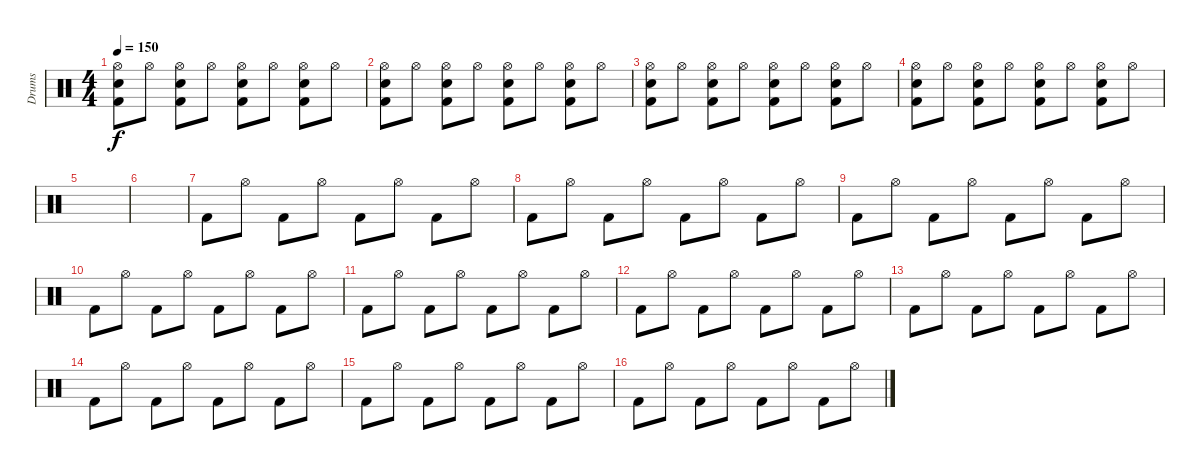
\track ("Drums" "Drums") {instrument percussion}
\staff {score}
\articulation defaults
\ts (4 4)
\tempo 150
\clef neutral
\ks c
("Hi-Hat (open)" "Snare (hit) 2" "Kick (hit) 2").8{dy f} "Hi-Hat (open)".8 ("Hi-Hat (open)" "Snare (hit) 2" "Kick (hit) 2").8 "Hi-Hat (open)".8 ("Hi-Hat (open)" "Snare (hit) 2" "Kick (hit) 2").8 "Hi-Hat (open)".8 ("Hi-Hat (open)" "Snare (hit) 2" "Kick (hit) 2").8 "Hi-Hat (open)".8 |
("Hi-Hat (open)" "Snare (hit) 2" "Kick (hit) 2").8 "Hi-Hat (open)".8 ("Hi-Hat (open)" "Snare (hit) 2" "Kick (hit) 2").8 "Hi-Hat (open)".8 ("Hi-Hat (open)" "Snare (hit) 2" "Kick (hit) 2").8 "Hi-Hat (open)".8 ("Hi-Hat (open)" "Snare (hit) 2" "Kick (hit) 2").8 "Hi-Hat (open)".8 |
("Hi-Hat (open)" "Snare (hit) 2" "Kick (hit) 2").8 "Hi-Hat (open)".8 ("Hi-Hat (open)" "Snare (hit) 2" "Kick (hit) 2").8 "Hi-Hat (open)".8 ("Hi-Hat (open)" "Snare (hit) 2" "Kick (hit) 2").8 "Hi-Hat (open)".8 ("Hi-Hat (open)" "Snare (hit) 2" "Kick (hit) 2").8 "Hi-Hat (open)".8 |
("Hi-Hat (open)" "Snare (hit) 2" "Kick (hit) 2").8 "Hi-Hat (open)".8 ("Hi-Hat (open)" "Snare (hit) 2" "Kick (hit) 2").8 "Hi-Hat (open)".8 ("Hi-Hat (open)" "Snare (hit) 2" "Kick (hit) 2").8 "Hi-Hat (open)".8 ("Hi-Hat (open)" "Snare (hit) 2" "Kick (hit) 2").8 "Hi-Hat (open)".8 |
|
|
"Kick (hit) 2".8 "Hi-Hat (open)".8 "Kick (hit) 2".8 "Hi-Hat (open)".8 "Kick (hit) 2".8 "Hi-Hat (open)".8 "Kick (hit) 2".8 "Hi-Hat (open)".8 |
"Kick (hit) 2".8 "Hi-Hat (open)".8 "Kick (hit) 2".8 "Hi-Hat (open)".8 "Kick (hit) 2".8 "Hi-Hat (open)".8 "Kick (hit) 2".8 "Hi-Hat (open)".8 |
"Kick (hit) 2".8 "Hi-Hat (open)".8 "Kick (hit) 2".8 "Hi-Hat (open)".8 "Kick (hit) 2".8 "Hi-Hat (open)".8 "Kick (hit) 2".8 "Hi-Hat (open)".8 |
"Kick (hit) 2".8 "Hi-Hat (open)".8 "Kick (hit) 2".8 "Hi-Hat (open)".8 "Kick (hit) 2".8 "Hi-Hat (open)".8 "Kick (hit) 2".8 "Hi-Hat (open)".8 |
"Kick (hit) 2".8 "Hi-Hat (open)".8 "Kick (hit) 2".8 "Hi-Hat (open)".8 "Kick (hit) 2".8 "Hi-Hat (open)".8 "Kick (hit) 2".8 "Hi-Hat (open)".8 |
"Kick (hit) 2".8 "Hi-Hat (open)".8 "Kick (hit) 2".8 "Hi-Hat (open)".8 "Kick (hit) 2".8 "Hi-Hat (open)".8 "Kick (hit) 2".8 "Hi-Hat (open)".8 |
"Kick (hit) 2".8 "Hi-Hat (open)".8 "Kick (hit) 2".8 "Hi-Hat (open)".8 "Kick (hit) 2".8 "Hi-Hat (open)".8 "Kick (hit) 2".8 "Hi-Hat (open)".8 |
"Kick (hit) 2".8 "Hi-Hat (open)".8 "Kick (hit) 2".8 "Hi-Hat (open)".8 "Kick (hit) 2".8 "Hi-Hat (open)".8 "Kick (hit) 2".8 "Hi-Hat (open)".8 |
"Kick (hit) 2".8 "Hi-Hat (open)".8 "Kick (hit) 2".8 "Hi-Hat (open)".8 "Kick (hit) 2".8 "Hi-Hat (open)".8 "Kick (hit) 2".8 "Hi-Hat (open)".8 |
"Kick (hit) 2".8 "Hi-Hat (open)".8 "Kick (hit) 2".8 "Hi-Hat (open)".8 "Kick (hit) 2".8 "Hi-Hat (open)".8 "Kick (hit) 2".8 "Hi-Hat (open)".8
